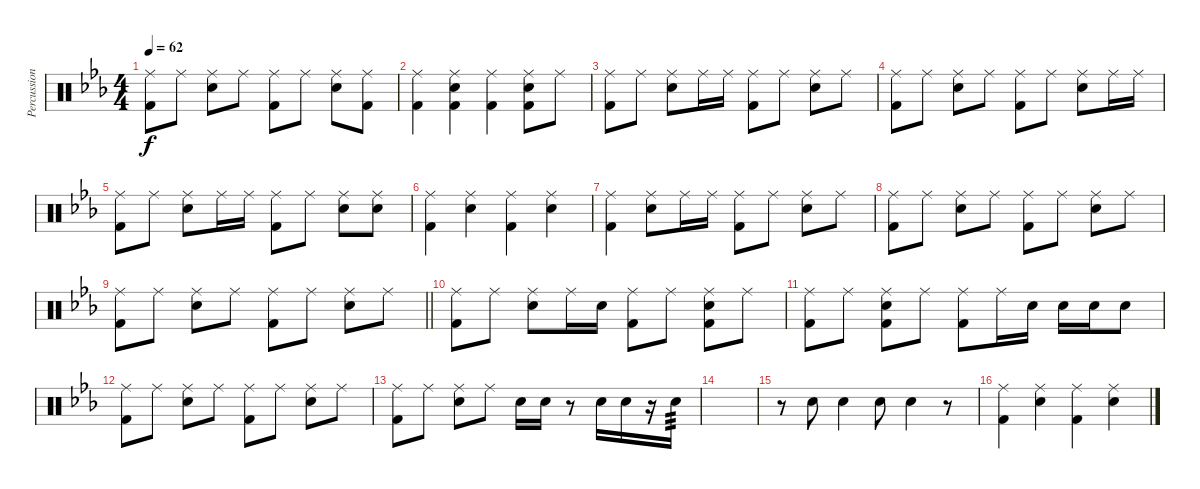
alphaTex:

\track ("Percussion" "Percussion") {instrument percussion}
\staff {score}
\articulation defaults
\ts (4 4)
\tempo 62
\clef neutral
\ks eb
("Ride (middle)" "Kick (hit) 2").8{dy f} "Ride (middle)".8 ("Ride (middle)" "Snare (hit) 2").8 "Ride (middle)".8 ("Ride (middle)" "Kick (hit) 2").8 "Ride (middle)".8 ("Ride (middle)" "Snare (hit) 2").8 ("Ride (middle)" "Kick (hit) 2").8 |
("Ride (middle)" "Kick (hit) 2").4 ("Ride (middle)" "Snare (hit) 2" "Kick (hit) 2").4 ("Ride (middle)" "Kick (hit) 2").4 ("Ride (middle)" "Snare (hit) 2" "Kick (hit) 2").8 "Ride (middle)".8 |
("Ride (middle)" "Kick (hit) 2").8 "Ride (middle)".8 ("Ride (middle)" "Snare (hit) 2").8 "Ride (middle)".16 "Ride (middle)".16 ("Ride (middle)" "Kick (hit) 2").8 "Ride (middle)".8 ("Ride (middle)" "Snare (hit) 2").8 "Ride (middle)".8 |
("Ride (middle)" "Kick (hit) 2").8 "Ride (middle)".8 ("Ride (middle)" "Snare (hit) 2").8 "Ride (middle)".8 ("Ride (middle)" "Kick (hit) 2").8 "Ride (middle)".8 ("Ride (middle)" "Snare (hit) 2").8 "Ride (middle)".16 "Ride (middle)".16 |
("Ride (middle)" "Kick (hit) 2").8 "Ride (middle)".8 ("Ride (middle)" "Snare (hit) 2").8 "Ride (middle)".16 "Ride (middle)".16 ("Ride (middle)" "Kick (hit) 2").8 "Ride (middle)".8 ("Ride (middle)" "Snare (hit) 2").8 ("Ride (middle)" "Snare (hit) 2").8 |
("Ride (middle)" "Kick (hit) 2").4 ("Ride (middle)" "Snare (hit) 2").4 ("Ride (middle)" "Kick (hit) 2").4 ("Ride (middle)" "Snare (hit) 2").4 |
("Ride (middle)" "Kick (hit) 2").4 ("Ride (middle)" "Snare (hit) 2").8 "Ride (middle)".16 "Ride (middle)".16 ("Ride (middle)" "Kick (hit) 2").8 "Ride (middle)".8 ("Ride (middle)" "Snare (hit) 2").8 "Ride (middle)".8 |
("Ride (middle)" "Kick (hit) 2").8 "Ride (middle)".8 ("Ride (middle)" "Snare (hit) 2").8 "Ride (middle)".8 ("Ride (middle)" "Kick (hit) 2").8 "Ride (middle)".8 ("Ride (middle)" "Snare (hit) 2").8 "Ride (middle)".8 |
\barLineRight lightlight
("Ride (middle)" "Kick (hit) 2").8 "Ride (middle)".8 ("Ride (middle)" "Snare (hit) 2").8 "Ride (middle)".8 ("Ride (middle)" "Kick (hit) 2").8 "Ride (middle)".8 ("Ride (middle)" "Snare (hit) 2").8 "Ride (middle)".8 |
("Ride (middle)" "Kick (hit) 2").8 "Ride (middle)".8 ("Ride (middle)" "Snare (hit) 2").8 "Ride (middle)".16 "Snare (hit) 2".16 ("Ride (middle)" "Kick (hit) 2").8 "Ride (middle)".8 ("Ride (middle)" "Snare (hit) 2" "Kick (hit) 2").8 "Ride (middle)".8 |
("Ride (middle)" "Kick (hit) 2").8 "Ride (middle)".8 ("Ride (middle)" "Snare (hit) 2" "Kick (hit) 2").8 "Ride (middle)".8 ("Ride (middle)" "Kick (hit) 2").8 "Ride (middle)".16 "Snare (hit) 2".16 "Snare (hit) 2".16 "Snare (hit) 2".16 "Snare (hit) 2".8 |
("Ride (middle)" "Kick (hit) 2").8 "Ride (middle)".8 ("Ride (middle)" "Snare (hit) 2").8 "Ride (middle)".8 ("Ride (middle)" "Kick (hit) 2").8 "Ride (middle)".8 ("Ride (middle)" "Snare (hit) 2").8 "Ride (middle)".8 |
("Ride (middle)" "Kick (hit) 2").8 "Ride (middle)".8 ("Ride (middle)" "Snare (hit) 2").8 "Ride (middle)".8 "Snare (hit) 2".16 "Snare (hit) 2".16 r.8 "Snare (hit) 2".16 "Snare (hit) 2".16 r.16 "Snare (hit) 2".16{tp 3} |
|
r.8 "Snare (hit) 2".8 "Snare (hit) 2".4 "Snare (hit) 2".8 "Snare (hit) 2".4 r.8 |
("Ride (middle)" "Kick (hit) 2").4 ("Ride (middle)" "Snare (hit) 2").4 ("Ride (middle)" "Kick (hit) 2").4 ("Ride (middle)" "Snare (hit) 2").4
